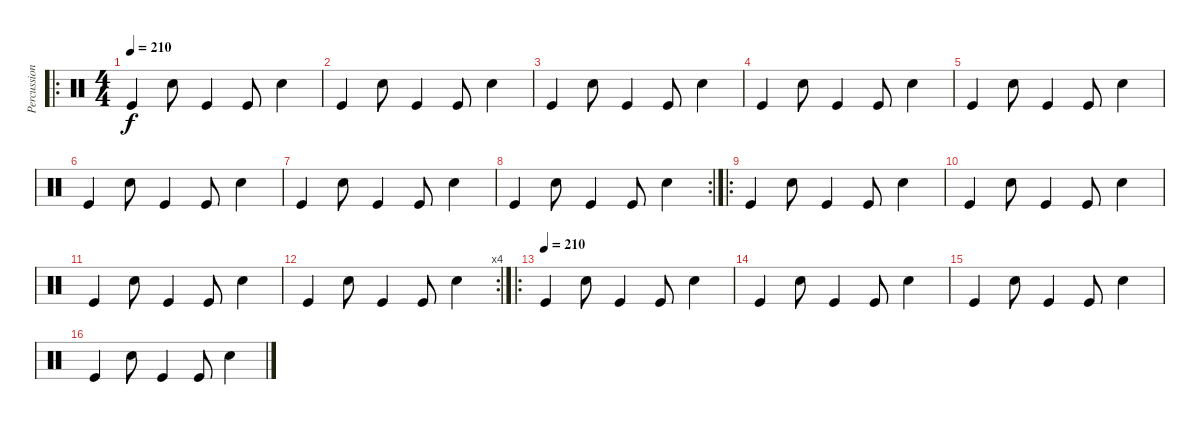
\track ("Percussion" "Percussion") {instrument percussion}
\staff {score}
\articulation defaults
\ro
\ts (4 4)
\tempo 210
\clef neutral
\ks c "Kick (hit)".4{dy f} "Snare (hit) 2".8 "Kick (hit)".4 "Kick (hit)".8 "Snare (hit) 2".4
|
"Kick (hit)".4 "Snare (hit) 2".8 "Kick (hit)".4 "Kick (hit)".8 "Snare (hit) 2".4 |
"Kick (hit)".4 "Snare (hit) 2".8 "Kick (hit)".4 "Kick (hit)".8 "Snare (hit) 2".4 |
"Kick (hit)".4 "Snare (hit) 2".8 "Kick (hit)".4 "Kick (hit)".8 "Snare (hit) 2".4 |
"Kick (hit)".4 "Snare (hit) 2".8 "Kick (hit)".4 "Kick (hit)".8 "Snare (hit) 2".4 |
"Kick (hit)".4 "Snare (hit) 2".8 "Kick (hit)".4 "Kick (hit)".8 "Snare (hit) 2".4 |
"Kick (hit)".4 "Snare (hit) 2".8 "Kick (hit)".4 "Kick (hit)".8 "Snare (hit) 2".4 |
\rc 2 "Kick (hit)".4 "Snare (hit) 2".8 "Kick (hit)".4 "Kick (hit)".8 "Snare (hit) 2".4
|
\ro "Kick (hit)".4 "Snare (hit) 2".8 "Kick (hit)".4 "Kick (hit)".8 "Snare (hit) 2".4
|
"Kick (hit)".4 "Snare (hit) 2".8 "Kick (hit)".4 "Kick (hit)".8 "Snare (hit) 2".4 |
"Kick (hit)".4 "Snare (hit) 2".8 "Kick (hit)".4 "Kick (hit)".8 "Snare (hit) 2".4 |
\rc 4 "Kick (hit)".4 "Snare (hit) 2".8 "Kick (hit)".4 "Kick (hit)".8 "Snare (hit) 2".4
|
\ro
\tempo (210)
"Kick (hit)".4 "Snare (hit) 2".8 "Kick (hit)".4 "Kick (hit)".8 "Snare (hit) 2".4 |
"Kick (hit)".4 "Snare (hit) 2".8 "Kick (hit)".4 "Kick (hit)".8 "Snare (hit) 2".4 |
"Kick (hit)".4 "Snare (hit) 2".8 "Kick (hit)".4 "Kick (hit)".8 "Snare (hit) 2".4 |
"Kick (hit)".4 "Snare (hit) 2".8 "Kick (hit)".4 "Kick (hit)".8 "Snare (hit) 2".4
